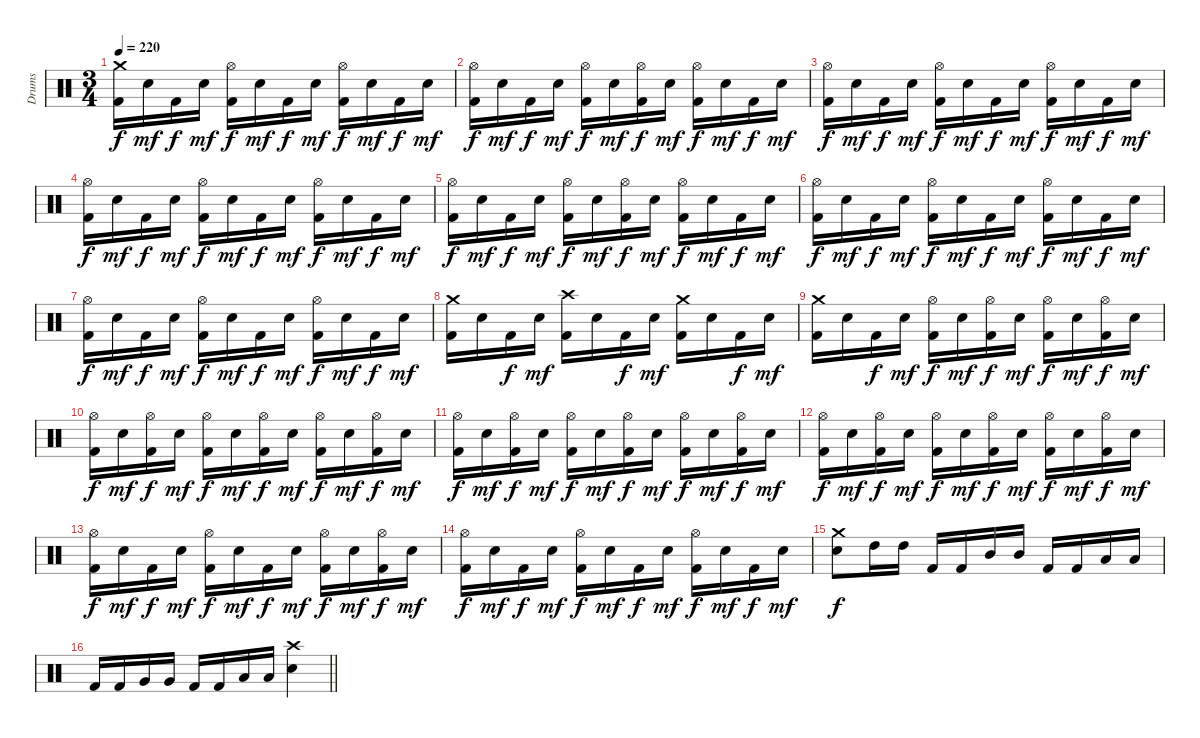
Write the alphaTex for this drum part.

\track ("Drums" "Drums") {instrument percussion}
\staff {score}
\articulation defaults
\ts (3 4)
\tempo 220
\clef neutral
\ks c
("Crash medium (hit)" "Kick (hit) 2").16{dy f} "Electric Snare (hit)".16{dy mf} "Kick (hit) 2".16{dy f} "Electric Snare (hit)".16{dy mf} ("Hi-Hat (open)" "Kick (hit) 2").16{dy f} "Electric Snare (hit)".16{dy mf} "Kick (hit) 2".16{dy f} "Electric Snare (hit)".16{dy mf} ("Hi-Hat (open)" "Kick (hit) 2").16{dy f} "Electric Snare (hit)".16{dy mf} "Kick (hit) 2".16{dy f} "Electric Snare (hit)".16{dy mf} |
("Hi-Hat (open)" "Kick (hit) 2").16{dy f} "Electric Snare (hit)".16{dy mf} "Kick (hit) 2".16{dy f} "Electric Snare (hit)".16{dy mf} ("Hi-Hat (open)" "Kick (hit) 2").16{dy f} "Electric Snare (hit)".16{dy mf} ("Hi-Hat (open)" "Kick (hit) 2").16{dy f} "Electric Snare (hit)".16{dy mf} ("Hi-Hat (open)" "Kick (hit) 2").16{dy f} "Electric Snare (hit)".16{dy mf} "Kick (hit) 2".16{dy f} "Electric Snare (hit)".16{dy mf} |
("Hi-Hat (open)" "Kick (hit) 2").16{dy f} "Electric Snare (hit)".16{dy mf} "Kick (hit) 2".16{dy f} "Electric Snare (hit)".16{dy mf} ("Hi-Hat (open)" "Kick (hit) 2").16{dy f} "Electric Snare (hit)".16{dy mf} "Kick (hit) 2".16{dy f} "Electric Snare (hit)".16{dy mf} ("Hi-Hat (open)" "Kick (hit) 2").16{dy f} "Electric Snare (hit)".16{dy mf} "Kick (hit) 2".16{dy f} "Electric Snare (hit)".16{dy mf} |
("Hi-Hat (open)" "Kick (hit) 2").16{dy f} "Electric Snare (hit)".16{dy mf} "Kick (hit) 2".16{dy f} "Electric Snare (hit)".16{dy mf} ("Hi-Hat (open)" "Kick (hit) 2").16{dy f} "Electric Snare (hit)".16{dy mf} "Kick (hit) 2".16{dy f} "Electric Snare (hit)".16{dy mf} ("Hi-Hat (open)" "Kick (hit) 2").16{dy f} "Electric Snare (hit)".16{dy mf} "Kick (hit) 2".16{dy f} "Electric Snare (hit)".16{dy mf} |
("Hi-Hat (open)" "Kick (hit) 2").16{dy f} "Electric Snare (hit)".16{dy mf} "Kick (hit) 2".16{dy f} "Electric Snare (hit)".16{dy mf} ("Hi-Hat (open)" "Kick (hit) 2").16{dy f} "Electric Snare (hit)".16{dy mf} ("Hi-Hat (open)" "Kick (hit) 2").16{dy f} "Electric Snare (hit)".16{dy mf} ("Hi-Hat (open)" "Kick (hit) 2").16{dy f} "Electric Snare (hit)".16{dy mf} "Kick (hit) 2".16{dy f} "Electric Snare (hit)".16{dy mf} |
("Hi-Hat (open)" "Kick (hit) 2").16{dy f} "Electric Snare (hit)".16{dy mf} "Kick (hit) 2".16{dy f} "Electric Snare (hit)".16{dy mf} ("Hi-Hat (open)" "Kick (hit) 2").16{dy f} "Electric Snare (hit)".16{dy mf} "Kick (hit) 2".16{dy f} "Electric Snare (hit)".16{dy mf} ("Hi-Hat (open)" "Kick (hit) 2").16{dy f} "Electric Snare (hit)".16{dy mf} "Kick (hit) 2".16{dy f} "Electric Snare (hit)".16{dy mf} |
("Hi-Hat (open)" "Kick (hit) 2").16{dy f} "Electric Snare (hit)".16{dy mf} "Kick (hit) 2".16{dy f} "Electric Snare (hit)".16{dy mf} ("Hi-Hat (open)" "Kick (hit) 2").16{dy f} "Electric Snare (hit)".16{dy mf} "Kick (hit) 2".16{dy f} "Electric Snare (hit)".16{dy mf} ("Hi-Hat (open)" "Kick (hit) 2").16{dy f} "Electric Snare (hit)".16{dy mf} "Kick (hit) 2".16{dy f} "Electric Snare (hit)".16{dy mf} |
("Crash medium (hit)" "Kick (hit) 2").16 "Electric Snare (hit)".16 "Kick (hit) 2".16{dy f} "Electric Snare (hit)".16{dy mf} ("Crash high (hit)" "Kick (hit) 2").16 "Electric Snare (hit)".16 "Kick (hit) 2".16{dy f} "Electric Snare (hit)".16{dy mf} ("Crash medium (hit)" "Kick (hit) 2").16 "Electric Snare (hit)".16 "Kick (hit) 2".16{dy f} "Electric Snare (hit)".16{dy mf} |
("Crash medium (hit)" "Kick (hit) 2").16 "Electric Snare (hit)".16 "Kick (hit) 2".16{dy f} "Electric Snare (hit)".16{dy mf} ("Hi-Hat (open)" "Kick (hit) 2").16{dy f} "Electric Snare (hit)".16{dy mf} ("Hi-Hat (open)" "Kick (hit) 2").16{dy f} "Electric Snare (hit)".16{dy mf} ("Hi-Hat (open)" "Kick (hit) 2").16{dy f} "Electric Snare (hit)".16{dy mf} ("Hi-Hat (open)" "Kick (hit) 2").16{dy f} "Electric Snare (hit)".16{dy mf} |
("Hi-Hat (open)" "Kick (hit) 2").16{dy f} "Electric Snare (hit)".16{dy mf} ("Hi-Hat (open)" "Kick (hit) 2").16{dy f} "Electric Snare (hit)".16{dy mf} ("Hi-Hat (open)" "Kick (hit) 2").16{dy f} "Electric Snare (hit)".16{dy mf} ("Hi-Hat (open)" "Kick (hit) 2").16{dy f} "Electric Snare (hit)".16{dy mf} ("Hi-Hat (open)" "Kick (hit) 2").16{dy f} "Electric Snare (hit)".16{dy mf} ("Hi-Hat (open)" "Kick (hit) 2").16{dy f} "Electric Snare (hit)".16{dy mf} |
("Hi-Hat (open)" "Kick (hit) 2").16{dy f} "Electric Snare (hit)".16{dy mf} ("Hi-Hat (open)" "Kick (hit) 2").16{dy f} "Electric Snare (hit)".16{dy mf} ("Hi-Hat (open)" "Kick (hit) 2").16{dy f} "Electric Snare (hit)".16{dy mf} ("Hi-Hat (open)" "Kick (hit) 2").16{dy f} "Electric Snare (hit)".16{dy mf} ("Hi-Hat (open)" "Kick (hit) 2").16{dy f} "Electric Snare (hit)".16{dy mf} ("Hi-Hat (open)" "Kick (hit) 2").16{dy f} "Electric Snare (hit)".16{dy mf} |
("Hi-Hat (open)" "Kick (hit) 2").16{dy f} "Electric Snare (hit)".16{dy mf} ("Hi-Hat (open)" "Kick (hit) 2").16{dy f} "Electric Snare (hit)".16{dy mf} ("Hi-Hat (open)" "Kick (hit) 2").16{dy f} "Electric Snare (hit)".16{dy mf} ("Hi-Hat (open)" "Kick (hit) 2").16{dy f} "Electric Snare (hit)".16{dy mf} ("Hi-Hat (open)" "Kick (hit) 2").16{dy f} "Electric Snare (hit)".16{dy mf} ("Hi-Hat (open)" "Kick (hit) 2").16{dy f} "Electric Snare (hit)".16{dy mf} |
("Hi-Hat (open)" "Kick (hit) 2").16{dy f} "Electric Snare (hit)".16{dy mf} "Kick (hit) 2".16{dy f} "Electric Snare (hit)".16{dy mf} ("Hi-Hat (open)" "Kick (hit) 2").16{dy f} "Electric Snare (hit)".16{dy mf} "Kick (hit) 2".16{dy f} "Electric Snare (hit)".16{dy mf} ("Hi-Hat (open)" "Kick (hit) 2").16{dy f} "Electric Snare (hit)".16{dy mf} ("Hi-Hat (open)" "Kick (hit) 2").16{dy f} "Electric Snare (hit)".16{dy mf} |
("Hi-Hat (open)" "Kick (hit) 2").16{dy f} "Electric Snare (hit)".16{dy mf} "Kick (hit) 2".16{dy f} "Electric Snare (hit)".16{dy mf} ("Hi-Hat (open)" "Kick (hit) 2").16{dy f} "Electric Snare (hit)".16{dy mf} "Kick (hit) 2".16{dy f} "Electric Snare (hit)".16{dy mf} ("Hi-Hat (open)" "Kick (hit) 2").16{dy f} "Electric Snare (hit)".16{dy mf} "Kick (hit) 2".16{dy f} "Electric Snare (hit)".16{dy mf} |
("Crash medium (hit)" "Electric Snare (hit)").8{dy f} "High Tom (hit)".16 "High Tom (hit)".16 "Kick (hit) 2".16 "Kick (hit) 2".16 "Mid Tom (hit)".16 "Mid Tom (hit)".16 "Kick (hit) 2".16 "Kick (hit) 2".16 "Low Tom (hit)".16 "Low Tom (hit)".16 |
\barLineRight lightlight "Kick (hit) 2".16 "Kick (hit) 2".16 "Very Low Tom (hit)".16 "Very Low Tom (hit)".16 "Kick (hit) 2".16 "Kick (hit) 2".16 "Low Floor Tom (hit)".16 "Low Floor Tom (hit)".16
("Crash high (hit)" "Electric Snare (hit)").4
